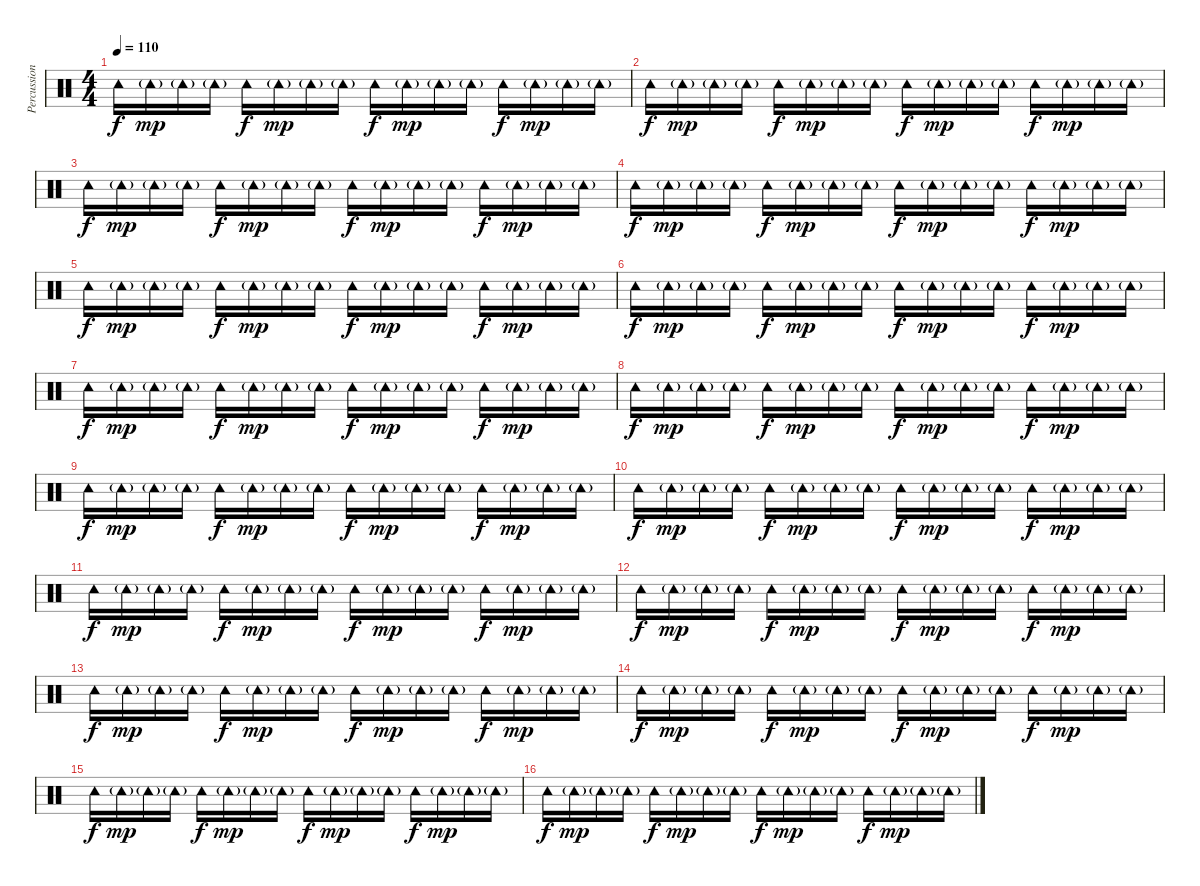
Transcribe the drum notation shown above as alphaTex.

\track ("Percussion" "Percussion") {instrument percussion}
\staff {score}
\articulation defaults
\ts (4 4)
\tempo 110
\clef neutral
\ks c "Tambourine (hit)".16{dy f} "Tambourine (hit)"{g}.16{dy mp} "Tambourine (hit)"{g}.16 "Tambourine (hit)"{g}.16 "Tambourine (hit)".16{dy f} "Tambourine (hit)"{g}.16{dy mp} "Tambourine (hit)"{g}.16 "Tambourine (hit)"{g}.16 "Tambourine (hit)".16{dy f} "Tambourine (hit)"{g}.16{dy mp} "Tambourine (hit)"{g}.16 "Tambourine (hit)"{g}.16 "Tambourine (hit)".16{dy f} "Tambourine (hit)"{g}.16{dy mp} "Tambourine (hit)"{g}.16 "Tambourine (hit)"{g}.16
|
"Tambourine (hit)".16{dy f} "Tambourine (hit)"{g}.16{dy mp} "Tambourine (hit)"{g}.16 "Tambourine (hit)"{g}.16 "Tambourine (hit)".16{dy f} "Tambourine (hit)"{g}.16{dy mp} "Tambourine (hit)"{g}.16 "Tambourine (hit)"{g}.16 "Tambourine (hit)".16{dy f} "Tambourine (hit)"{g}.16{dy mp} "Tambourine (hit)"{g}.16 "Tambourine (hit)"{g}.16 "Tambourine (hit)".16{dy f} "Tambourine (hit)"{g}.16{dy mp} "Tambourine (hit)"{g}.16 "Tambourine (hit)"{g}.16 |
"Tambourine (hit)".16{dy f} "Tambourine (hit)"{g}.16{dy mp} "Tambourine (hit)"{g}.16 "Tambourine (hit)"{g}.16 "Tambourine (hit)".16{dy f} "Tambourine (hit)"{g}.16{dy mp} "Tambourine (hit)"{g}.16 "Tambourine (hit)"{g}.16 "Tambourine (hit)".16{dy f} "Tambourine (hit)"{g}.16{dy mp} "Tambourine (hit)"{g}.16 "Tambourine (hit)"{g}.16 "Tambourine (hit)".16{dy f} "Tambourine (hit)"{g}.16{dy mp} "Tambourine (hit)"{g}.16 "Tambourine (hit)"{g}.16 |
"Tambourine (hit)".16{dy f} "Tambourine (hit)"{g}.16{dy mp} "Tambourine (hit)"{g}.16 "Tambourine (hit)"{g}.16 "Tambourine (hit)".16{dy f} "Tambourine (hit)"{g}.16{dy mp} "Tambourine (hit)"{g}.16 "Tambourine (hit)"{g}.16 "Tambourine (hit)".16{dy f} "Tambourine (hit)"{g}.16{dy mp} "Tambourine (hit)"{g}.16 "Tambourine (hit)"{g}.16 "Tambourine (hit)".16{dy f} "Tambourine (hit)"{g}.16{dy mp} "Tambourine (hit)"{g}.16 "Tambourine (hit)"{g}.16 |
"Tambourine (hit)".16{dy f} "Tambourine (hit)"{g}.16{dy mp} "Tambourine (hit)"{g}.16 "Tambourine (hit)"{g}.16 "Tambourine (hit)".16{dy f} "Tambourine (hit)"{g}.16{dy mp} "Tambourine (hit)"{g}.16 "Tambourine (hit)"{g}.16 "Tambourine (hit)".16{dy f} "Tambourine (hit)"{g}.16{dy mp} "Tambourine (hit)"{g}.16 "Tambourine (hit)"{g}.16 "Tambourine (hit)".16{dy f} "Tambourine (hit)"{g}.16{dy mp} "Tambourine (hit)"{g}.16 "Tambourine (hit)"{g}.16 |
"Tambourine (hit)".16{dy f} "Tambourine (hit)"{g}.16{dy mp} "Tambourine (hit)"{g}.16 "Tambourine (hit)"{g}.16 "Tambourine (hit)".16{dy f} "Tambourine (hit)"{g}.16{dy mp} "Tambourine (hit)"{g}.16 "Tambourine (hit)"{g}.16 "Tambourine (hit)".16{dy f} "Tambourine (hit)"{g}.16{dy mp} "Tambourine (hit)"{g}.16 "Tambourine (hit)"{g}.16 "Tambourine (hit)".16{dy f} "Tambourine (hit)"{g}.16{dy mp} "Tambourine (hit)"{g}.16 "Tambourine (hit)"{g}.16 |
"Tambourine (hit)".16{dy f} "Tambourine (hit)"{g}.16{dy mp} "Tambourine (hit)"{g}.16 "Tambourine (hit)"{g}.16 "Tambourine (hit)".16{dy f} "Tambourine (hit)"{g}.16{dy mp} "Tambourine (hit)"{g}.16 "Tambourine (hit)"{g}.16 "Tambourine (hit)".16{dy f} "Tambourine (hit)"{g}.16{dy mp} "Tambourine (hit)"{g}.16 "Tambourine (hit)"{g}.16 "Tambourine (hit)".16{dy f} "Tambourine (hit)"{g}.16{dy mp} "Tambourine (hit)"{g}.16 "Tambourine (hit)"{g}.16 |
"Tambourine (hit)".16{dy f} "Tambourine (hit)"{g}.16{dy mp} "Tambourine (hit)"{g}.16 "Tambourine (hit)"{g}.16 "Tambourine (hit)".16{dy f} "Tambourine (hit)"{g}.16{dy mp} "Tambourine (hit)"{g}.16 "Tambourine (hit)"{g}.16 "Tambourine (hit)".16{dy f} "Tambourine (hit)"{g}.16{dy mp} "Tambourine (hit)"{g}.16 "Tambourine (hit)"{g}.16 "Tambourine (hit)".16{dy f} "Tambourine (hit)"{g}.16{dy mp} "Tambourine (hit)"{g}.16 "Tambourine (hit)"{g}.16 |
"Tambourine (hit)".16{dy f} "Tambourine (hit)"{g}.16{dy mp} "Tambourine (hit)"{g}.16 "Tambourine (hit)"{g}.16 "Tambourine (hit)".16{dy f} "Tambourine (hit)"{g}.16{dy mp} "Tambourine (hit)"{g}.16 "Tambourine (hit)"{g}.16 "Tambourine (hit)".16{dy f} "Tambourine (hit)"{g}.16{dy mp} "Tambourine (hit)"{g}.16 "Tambourine (hit)"{g}.16 "Tambourine (hit)".16{dy f} "Tambourine (hit)"{g}.16{dy mp} "Tambourine (hit)"{g}.16 "Tambourine (hit)"{g}.16 |
"Tambourine (hit)".16{dy f} "Tambourine (hit)"{g}.16{dy mp} "Tambourine (hit)"{g}.16 "Tambourine (hit)"{g}.16 "Tambourine (hit)".16{dy f} "Tambourine (hit)"{g}.16{dy mp} "Tambourine (hit)"{g}.16 "Tambourine (hit)"{g}.16 "Tambourine (hit)".16{dy f} "Tambourine (hit)"{g}.16{dy mp} "Tambourine (hit)"{g}.16 "Tambourine (hit)"{g}.16 "Tambourine (hit)".16{dy f} "Tambourine (hit)"{g}.16{dy mp} "Tambourine (hit)"{g}.16 "Tambourine (hit)"{g}.16 |
"Tambourine (hit)".16{dy f} "Tambourine (hit)"{g}.16{dy mp} "Tambourine (hit)"{g}.16 "Tambourine (hit)"{g}.16 "Tambourine (hit)".16{dy f} "Tambourine (hit)"{g}.16{dy mp} "Tambourine (hit)"{g}.16 "Tambourine (hit)"{g}.16 "Tambourine (hit)".16{dy f} "Tambourine (hit)"{g}.16{dy mp} "Tambourine (hit)"{g}.16 "Tambourine (hit)"{g}.16 "Tambourine (hit)".16{dy f} "Tambourine (hit)"{g}.16{dy mp} "Tambourine (hit)"{g}.16 "Tambourine (hit)"{g}.16 |
"Tambourine (hit)".16{dy f} "Tambourine (hit)"{g}.16{dy mp} "Tambourine (hit)"{g}.16 "Tambourine (hit)"{g}.16 "Tambourine (hit)".16{dy f} "Tambourine (hit)"{g}.16{dy mp} "Tambourine (hit)"{g}.16 "Tambourine (hit)"{g}.16 "Tambourine (hit)".16{dy f} "Tambourine (hit)"{g}.16{dy mp} "Tambourine (hit)"{g}.16 "Tambourine (hit)"{g}.16 "Tambourine (hit)".16{dy f} "Tambourine (hit)"{g}.16{dy mp} "Tambourine (hit)"{g}.16 "Tambourine (hit)"{g}.16 |
"Tambourine (hit)".16{dy f} "Tambourine (hit)"{g}.16{dy mp} "Tambourine (hit)"{g}.16 "Tambourine (hit)"{g}.16 "Tambourine (hit)".16{dy f} "Tambourine (hit)"{g}.16{dy mp} "Tambourine (hit)"{g}.16 "Tambourine (hit)"{g}.16 "Tambourine (hit)".16{dy f} "Tambourine (hit)"{g}.16{dy mp} "Tambourine (hit)"{g}.16 "Tambourine (hit)"{g}.16 "Tambourine (hit)".16{dy f} "Tambourine (hit)"{g}.16{dy mp} "Tambourine (hit)"{g}.16 "Tambourine (hit)"{g}.16 |
"Tambourine (hit)".16{dy f} "Tambourine (hit)"{g}.16{dy mp} "Tambourine (hit)"{g}.16 "Tambourine (hit)"{g}.16 "Tambourine (hit)".16{dy f} "Tambourine (hit)"{g}.16{dy mp} "Tambourine (hit)"{g}.16 "Tambourine (hit)"{g}.16 "Tambourine (hit)".16{dy f} "Tambourine (hit)"{g}.16{dy mp} "Tambourine (hit)"{g}.16 "Tambourine (hit)"{g}.16 "Tambourine (hit)".16{dy f} "Tambourine (hit)"{g}.16{dy mp} "Tambourine (hit)"{g}.16 "Tambourine (hit)"{g}.16 |
"Tambourine (hit)".16{dy f} "Tambourine (hit)"{g}.16{dy mp} "Tambourine (hit)"{g}.16 "Tambourine (hit)"{g}.16 "Tambourine (hit)".16{dy f} "Tambourine (hit)"{g}.16{dy mp} "Tambourine (hit)"{g}.16 "Tambourine (hit)"{g}.16 "Tambourine (hit)".16{dy f} "Tambourine (hit)"{g}.16{dy mp} "Tambourine (hit)"{g}.16 "Tambourine (hit)"{g}.16 "Tambourine (hit)".16{dy f} "Tambourine (hit)"{g}.16{dy mp} "Tambourine (hit)"{g}.16 "Tambourine (hit)"{g}.16 |
"Tambourine (hit)".16{dy f} "Tambourine (hit)"{g}.16{dy mp} "Tambourine (hit)"{g}.16 "Tambourine (hit)"{g}.16 "Tambourine (hit)".16{dy f} "Tambourine (hit)"{g}.16{dy mp} "Tambourine (hit)"{g}.16 "Tambourine (hit)"{g}.16 "Tambourine (hit)".16{dy f} "Tambourine (hit)"{g}.16{dy mp} "Tambourine (hit)"{g}.16 "Tambourine (hit)"{g}.16 "Tambourine (hit)".16{dy f} "Tambourine (hit)"{g}.16{dy mp} "Tambourine (hit)"{g}.16 "Tambourine (hit)"{g}.16
